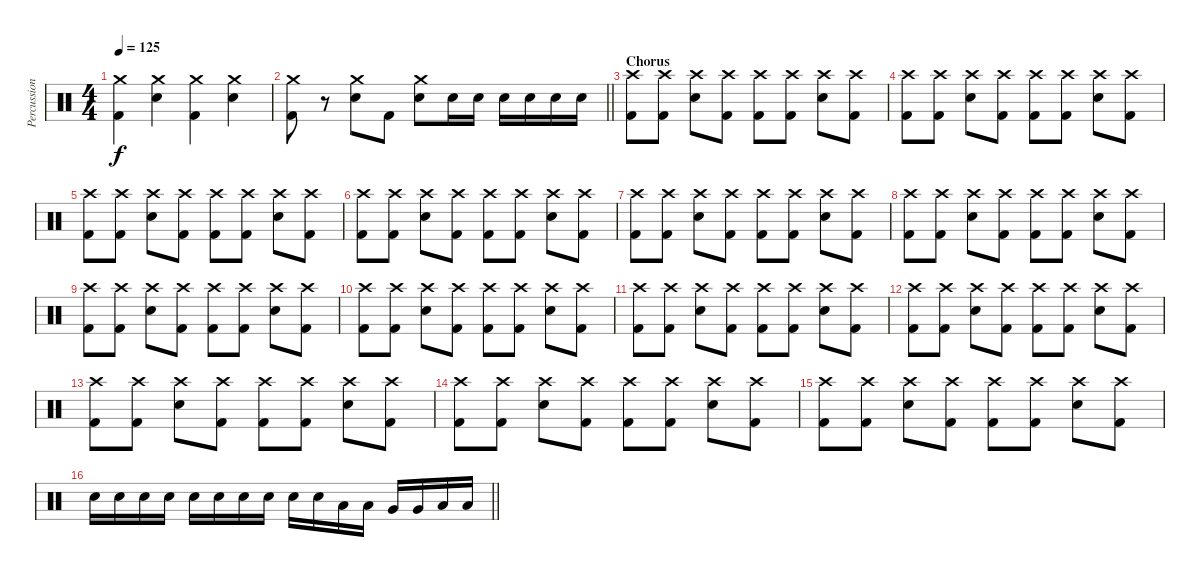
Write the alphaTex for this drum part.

\track ("Percussion" "Percussion") {instrument percussion}
\staff {score}
\articulation defaults
\ts (4 4)
\tempo 125
\clef neutral
\ks c
("Crash medium (hit)" "Kick (hit) 2").4{dy f} ("Crash medium (hit)" "Snare (hit) 2").4 ("Crash medium (hit)" "Kick (hit) 2").4 ("Crash medium (hit)" "Snare (hit) 2").4 |
\barLineRight lightlight
("Crash medium (hit)" "Kick (hit) 2").8 r.8 ("Crash medium (hit)" "Snare (hit) 2").8 "Kick (hit) 2".8 ("Crash medium (hit)" "Snare (hit) 2").8 "Snare (hit) 2".16 "Snare (hit) 2".16 "Snare (hit) 2".16 "Snare (hit) 2".16 "Snare (hit) 2".16 "Snare (hit) 2".16 |
\section ("" "Chorus")
("Crash high (hit)" "Kick (hit) 2").8 ("Crash high (hit)" "Kick (hit) 2").8 ("Crash high (hit)" "Snare (hit) 2").8 ("Crash high (hit)" "Kick (hit) 2").8 ("Crash high (hit)" "Kick (hit) 2").8 ("Crash high (hit)" "Kick (hit) 2").8 ("Crash high (hit)" "Snare (hit) 2").8 ("Crash high (hit)" "Kick (hit) 2").8 |
("Crash high (hit)" "Kick (hit) 2").8 ("Crash high (hit)" "Kick (hit) 2").8 ("Crash high (hit)" "Snare (hit) 2").8 ("Crash high (hit)" "Kick (hit) 2").8 ("Crash high (hit)" "Kick (hit) 2").8 ("Crash high (hit)" "Kick (hit) 2").8 ("Crash high (hit)" "Snare (hit) 2").8 ("Crash high (hit)" "Kick (hit) 2").8 |
("Crash high (hit)" "Kick (hit) 2").8 ("Crash high (hit)" "Kick (hit) 2").8 ("Crash high (hit)" "Snare (hit) 2").8 ("Crash high (hit)" "Kick (hit) 2").8 ("Crash high (hit)" "Kick (hit) 2").8 ("Crash high (hit)" "Kick (hit) 2").8 ("Crash high (hit)" "Snare (hit) 2").8 ("Crash high (hit)" "Kick (hit) 2").8 |
("Crash high (hit)" "Kick (hit) 2").8 ("Crash high (hit)" "Kick (hit) 2").8 ("Crash high (hit)" "Snare (hit) 2").8 ("Crash high (hit)" "Kick (hit) 2").8 ("Crash high (hit)" "Kick (hit) 2").8 ("Crash high (hit)" "Kick (hit) 2").8 ("Crash high (hit)" "Snare (hit) 2").8 ("Crash high (hit)" "Kick (hit) 2").8 |
("Crash high (hit)" "Kick (hit) 2").8 ("Crash high (hit)" "Kick (hit) 2").8 ("Crash high (hit)" "Snare (hit) 2").8 ("Crash high (hit)" "Kick (hit) 2").8 ("Crash high (hit)" "Kick (hit) 2").8 ("Crash high (hit)" "Kick (hit) 2").8 ("Crash high (hit)" "Snare (hit) 2").8 ("Crash high (hit)" "Kick (hit) 2").8 |
("Crash high (hit)" "Kick (hit) 2").8 ("Crash high (hit)" "Kick (hit) 2").8 ("Crash high (hit)" "Snare (hit) 2").8 ("Crash high (hit)" "Kick (hit) 2").8 ("Crash high (hit)" "Kick (hit) 2").8 ("Crash high (hit)" "Kick (hit) 2").8 ("Crash high (hit)" "Snare (hit) 2").8 ("Crash high (hit)" "Kick (hit) 2").8 |
("Crash high (hit)" "Kick (hit) 2").8 ("Crash high (hit)" "Kick (hit) 2").8 ("Crash high (hit)" "Snare (hit) 2").8 ("Crash high (hit)" "Kick (hit) 2").8 ("Crash high (hit)" "Kick (hit) 2").8 ("Crash high (hit)" "Kick (hit) 2").8 ("Crash high (hit)" "Snare (hit) 2").8 ("Crash high (hit)" "Kick (hit) 2").8 |
("Crash high (hit)" "Kick (hit) 2").8 ("Crash high (hit)" "Kick (hit) 2").8 ("Crash high (hit)" "Snare (hit) 2").8 ("Crash high (hit)" "Kick (hit) 2").8 ("Crash high (hit)" "Kick (hit) 2").8 ("Crash high (hit)" "Kick (hit) 2").8 ("Crash high (hit)" "Snare (hit) 2").8 ("Crash high (hit)" "Kick (hit) 2").8 |
("Crash high (hit)" "Kick (hit) 2").8 ("Crash high (hit)" "Kick (hit) 2").8 ("Crash high (hit)" "Snare (hit) 2").8 ("Crash high (hit)" "Kick (hit) 2").8 ("Crash high (hit)" "Kick (hit) 2").8 ("Crash high (hit)" "Kick (hit) 2").8 ("Crash high (hit)" "Snare (hit) 2").8 ("Crash high (hit)" "Kick (hit) 2").8 |
("Crash high (hit)" "Kick (hit) 2").8 ("Crash high (hit)" "Kick (hit) 2").8 ("Crash high (hit)" "Snare (hit) 2").8 ("Crash high (hit)" "Kick (hit) 2").8 ("Crash high (hit)" "Kick (hit) 2").8 ("Crash high (hit)" "Kick (hit) 2").8 ("Crash high (hit)" "Snare (hit) 2").8 ("Crash high (hit)" "Kick (hit) 2").8 |
("Crash high (hit)" "Kick (hit) 2").8 ("Crash high (hit)" "Kick (hit) 2").8 ("Crash high (hit)" "Snare (hit) 2").8 ("Crash high (hit)" "Kick (hit) 2").8 ("Crash high (hit)" "Kick (hit) 2").8 ("Crash high (hit)" "Kick (hit) 2").8 ("Crash high (hit)" "Snare (hit) 2").8 ("Crash high (hit)" "Kick (hit) 2").8 |
("Crash high (hit)" "Kick (hit) 2").8 ("Crash high (hit)" "Kick (hit) 2").8 ("Crash high (hit)" "Snare (hit) 2").8 ("Crash high (hit)" "Kick (hit) 2").8 ("Crash high (hit)" "Kick (hit) 2").8 ("Crash high (hit)" "Kick (hit) 2").8 ("Crash high (hit)" "Snare (hit) 2").8 ("Crash high (hit)" "Kick (hit) 2").8 |
("Crash high (hit)" "Kick (hit) 2").8 ("Crash high (hit)" "Kick (hit) 2").8 ("Crash high (hit)" "Snare (hit) 2").8 ("Crash high (hit)" "Kick (hit) 2").8 ("Crash high (hit)" "Kick (hit) 2").8 ("Crash high (hit)" "Kick (hit) 2").8 ("Crash high (hit)" "Snare (hit) 2").8 ("Crash high (hit)" "Kick (hit) 2").8 |
\barLineRight lightlight "Snare (hit) 2".16 "Snare (hit) 2".16 "Snare (hit) 2".16 "Snare (hit) 2".16 "Snare (hit) 2".16 "Snare (hit) 2".16 "Snare (hit) 2".16 "Snare (hit) 2".16 "Snare (hit) 2".16 "Snare (hit) 2".16 "Low Tom (hit)".16 "Low Tom (hit)".16 "Very Low Tom (hit)".16 "Very Low Tom (hit)".16 "Low Floor Tom (hit)".16 "Low Floor Tom (hit)".16
